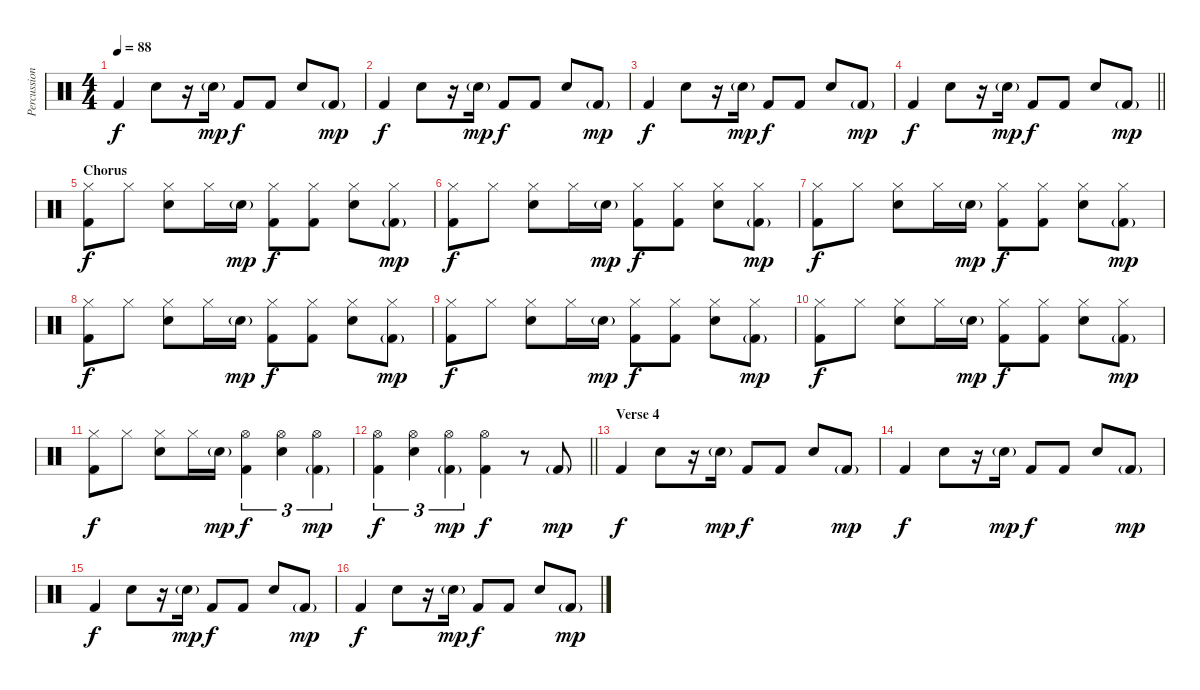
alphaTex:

\track ("Percussion" "Percussion") {instrument percussion}
\staff {score}
\articulation defaults
\ts (4 4)
\tempo 88
\clef neutral
\ks c "Kick (hit) 2".4{dy f} "Snare (hit) 2".8
r.16 "Snare (hit) 2"{g}.16{dy mp} "Kick (hit) 2".8{dy f} "Kick (hit) 2".8 "Snare (hit) 2".8 "Kick (hit) 2"{g}.8{dy mp} |
"Kick (hit) 2".4{dy f} "Snare (hit) 2".8 r.16 "Snare (hit) 2"{g}.16{dy mp} "Kick (hit) 2".8{dy f} "Kick (hit) 2".8 "Snare (hit) 2".8 "Kick (hit) 2"{g}.8{dy mp} |
"Kick (hit) 2".4{dy f} "Snare (hit) 2".8 r.16 "Snare (hit) 2"{g}.16{dy mp} "Kick (hit) 2".8{dy f} "Kick (hit) 2".8 "Snare (hit) 2".8 "Kick (hit) 2"{g}.8{dy mp} |
\barLineRight lightlight "Kick (hit) 2".4{dy f} "Snare (hit) 2".8
r.16 "Snare (hit) 2"{g}.16{dy mp} "Kick (hit) 2".8{dy f} "Kick (hit) 2".8 "Snare (hit) 2".8 "Kick (hit) 2"{g}.8{dy mp} |
\section ("" "Chorus")
("Hi-Hat (closed)" "Kick (hit) 2").8{dy f} "Hi-Hat (closed)".8 ("Hi-Hat (closed)" "Snare (hit) 2").8 "Hi-Hat (closed)".16 "Snare (hit) 2"{g}.16{dy mp} ("Hi-Hat (closed)" "Kick (hit) 2").8{dy f} ("Hi-Hat (closed)" "Kick (hit) 2").8 ("Hi-Hat (closed)" "Snare (hit) 2").8 ("Hi-Hat (closed)" "Kick (hit) 2"{g}).8{dy mp} |
("Hi-Hat (closed)" "Kick (hit) 2").8{dy f} "Hi-Hat (closed)".8 ("Hi-Hat (closed)" "Snare (hit) 2").8 "Hi-Hat (closed)".16 "Snare (hit) 2"{g}.16{dy mp} ("Hi-Hat (closed)" "Kick (hit) 2").8{dy f} ("Hi-Hat (closed)" "Kick (hit) 2").8 ("Hi-Hat (closed)" "Snare (hit) 2").8 ("Hi-Hat (closed)" "Kick (hit) 2"{g}).8{dy mp} |
("Hi-Hat (closed)" "Kick (hit) 2").8{dy f} "Hi-Hat (closed)".8 ("Hi-Hat (closed)" "Snare (hit) 2").8 "Hi-Hat (closed)".16 "Snare (hit) 2"{g}.16{dy mp} ("Hi-Hat (closed)" "Kick (hit) 2").8{dy f} ("Hi-Hat (closed)" "Kick (hit) 2").8 ("Hi-Hat (closed)" "Snare (hit) 2").8 ("Hi-Hat (closed)" "Kick (hit) 2"{g}).8{dy mp} |
("Hi-Hat (closed)" "Kick (hit) 2").8{dy f} "Hi-Hat (closed)".8 ("Hi-Hat (closed)" "Snare (hit) 2").8 "Hi-Hat (closed)".16 "Snare (hit) 2"{g}.16{dy mp} ("Hi-Hat (closed)" "Kick (hit) 2").8{dy f} ("Hi-Hat (closed)" "Kick (hit) 2").8 ("Hi-Hat (closed)" "Snare (hit) 2").8 ("Hi-Hat (closed)" "Kick (hit) 2"{g}).8{dy mp} |
("Hi-Hat (closed)" "Kick (hit) 2").8{dy f} "Hi-Hat (closed)".8 ("Hi-Hat (closed)" "Snare (hit) 2").8 "Hi-Hat (closed)".16 "Snare (hit) 2"{g}.16{dy mp} ("Hi-Hat (closed)" "Kick (hit) 2").8{dy f} ("Hi-Hat (closed)" "Kick (hit) 2").8 ("Hi-Hat (closed)" "Snare (hit) 2").8 ("Hi-Hat (closed)" "Kick (hit) 2"{g}).8{dy mp} |
("Hi-Hat (closed)" "Kick (hit) 2").8{dy f} "Hi-Hat (closed)".8 ("Hi-Hat (closed)" "Snare (hit) 2").8 "Hi-Hat (closed)".16 "Snare (hit) 2"{g}.16{dy mp} ("Hi-Hat (closed)" "Kick (hit) 2").8{dy f} ("Hi-Hat (closed)" "Kick (hit) 2").8 ("Hi-Hat (closed)" "Snare (hit) 2").8 ("Hi-Hat (closed)" "Kick (hit) 2"{g}).8{dy mp} |
("Hi-Hat (closed)" "Kick (hit) 2").8{dy f} "Hi-Hat (closed)".8 ("Hi-Hat (closed)" "Snare (hit) 2").8 "Hi-Hat (closed)".16 "Snare (hit) 2"{g}.16{dy mp} ("Hi-Hat (open)" "Kick (hit) 2").4{tu (3 2) dy f} ("Hi-Hat (open)" "Snare (hit) 2").4{tu (3 2)} ("Hi-Hat (open)" "Kick (hit) 2"{g}).4{tu (3 2) dy mp} |
\barLineRight lightlight
("Hi-Hat (open)" "Kick (hit) 2").4{tu (3 2) dy f} ("Hi-Hat (open)" "Snare (hit) 2").4{tu (3 2)} ("Hi-Hat (open)" "Kick (hit) 2"{g}).4{tu (3 2) dy mp} ("Hi-Hat (open)" "Kick (hit) 2").4{dy f} r.8 "Kick (hit) 2"{g}.8{dy mp} |
\section ("" "Verse 4")
"Kick (hit) 2".4{dy f} "Snare (hit) 2".8 r.16 "Snare (hit) 2"{g}.16{dy mp} "Kick (hit) 2".8{dy f} "Kick (hit) 2".8 "Snare (hit) 2".8 "Kick (hit) 2"{g}.8{dy mp} |
"Kick (hit) 2".4{dy f} "Snare (hit) 2".8 r.16 "Snare (hit) 2"{g}.16{dy mp} "Kick (hit) 2".8{dy f} "Kick (hit) 2".8 "Snare (hit) 2".8 "Kick (hit) 2"{g}.8{dy mp} |
"Kick (hit) 2".4{dy f} "Snare (hit) 2".8 r.16 "Snare (hit) 2"{g}.16{dy mp} "Kick (hit) 2".8{dy f} "Kick (hit) 2".8 "Snare (hit) 2".8 "Kick (hit) 2"{g}.8{dy mp} |
"Kick (hit) 2".4{dy f} "Snare (hit) 2".8 r.16 "Snare (hit) 2"{g}.16{dy mp} "Kick (hit) 2".8{dy f} "Kick (hit) 2".8 "Snare (hit) 2".8 "Kick (hit) 2"{g}.8{dy mp}
